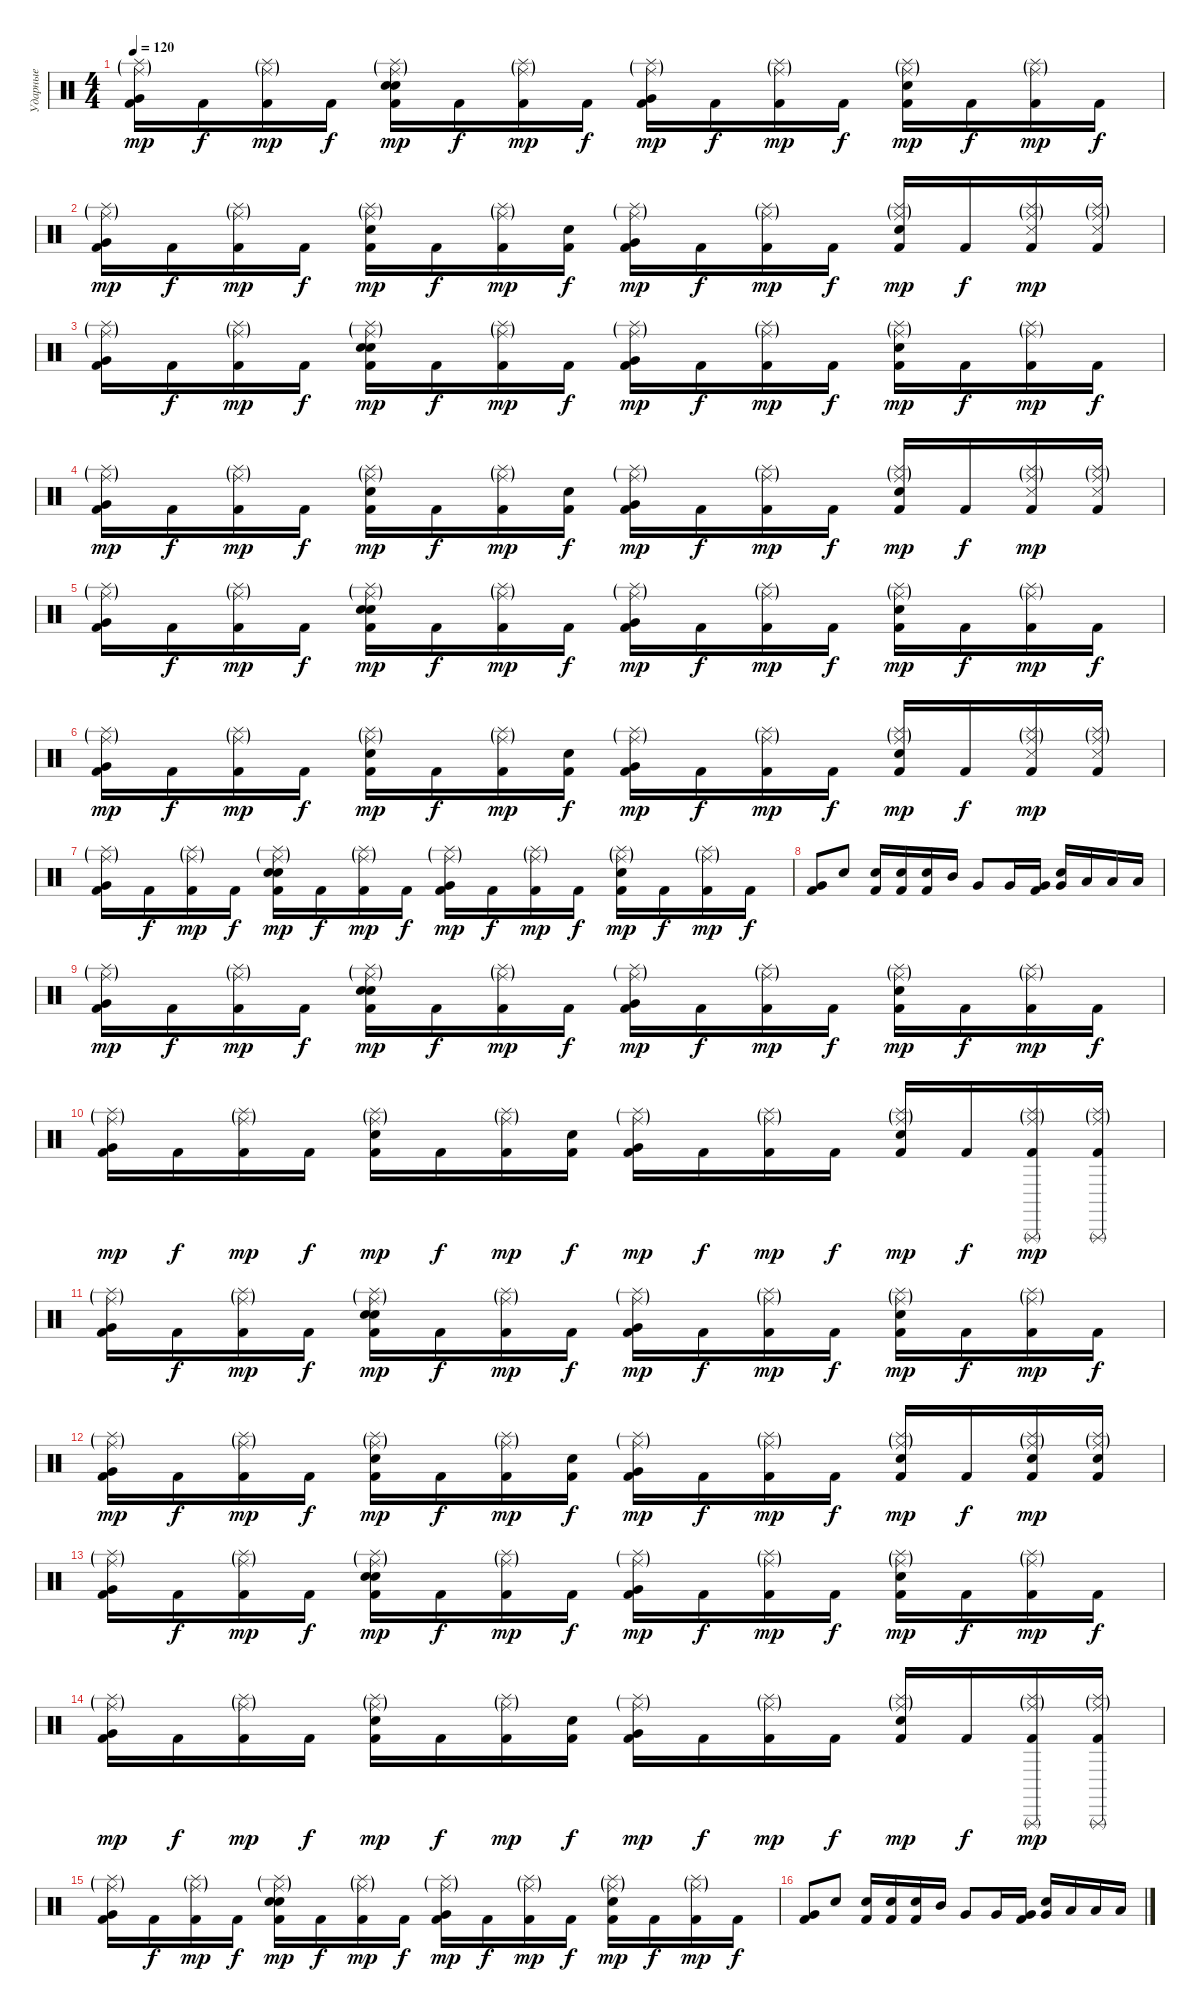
\track ("Ударные" "Ударные") {instrument percussion bank 2}
\staff {score}
\articulation defaults
\ts (4 4)
\tempo 120
\clef neutral
\ks c
("Kick (hit) 2" "Very Low Tom (hit)" "Splash (hit)"{g} "Ride (middle)"{g}).16{dy mp} "Kick (hit) 2".16{dy f} ("Kick (hit) 2" "Splash (hit)"{g} "Ride (middle)"{g}).16{dy mp} "Kick (hit) 2".16{dy f} ("Kick (hit) 2" "Snare (hit) 2" "Snare (hit)" "Splash (hit)"{g} "Ride (middle)"{g}).16{dy mp} "Kick (hit) 2".16{dy f} ("Kick (hit) 2" "Splash (hit)"{g} "Ride (middle)"{g}).16{dy mp} "Kick (hit) 2".16{dy f} ("Kick (hit) 2" "Very Low Tom (hit)" "Splash (hit)"{g} "Ride (middle)"{g}).16{dy mp} "Kick (hit) 2".16{dy f} ("Kick (hit) 2" "Splash (hit)"{g} "Ride (middle)"{g}).16{dy mp} "Kick (hit) 2".16{dy f} ("Kick (hit) 2" "Snare (hit) 2" "Splash (hit)"{g} "Ride (middle)"{g}).16{dy mp} "Kick (hit) 2".16{dy f} ("Kick (hit) 2" "Splash (hit)"{g} "Ride (middle)"{g}).16{dy mp} "Kick (hit) 2".16{dy f} |
("Kick (hit) 2" "Very Low Tom (hit)" "Splash (hit)"{g} "Ride (middle)"{g}).16{dy mp} "Kick (hit) 2".16{dy f} ("Kick (hit) 2" "Splash (hit)"{g} "Ride (middle)"{g}).16{dy mp} "Kick (hit) 2".16{dy f} ("Kick (hit) 2" "Snare (hit) 2" "Splash (hit)"{g} "Ride (middle)"{g}).16{dy mp} "Kick (hit) 2".16{dy f} ("Kick (hit) 2" "Splash (hit)"{g} "Ride (middle)"{g}).16{dy mp} ("Kick (hit) 2" "Snare (hit)").16{dy f} ("Kick (hit) 2" "Very Low Tom (hit)" "Splash (hit)"{g} "Ride (middle)"{g}).16{dy mp} "Kick (hit) 2".16{dy f} ("Kick (hit) 2" "Splash (hit)"{g} "Ride (middle)"{g}).16{dy mp} "Kick (hit) 2".16{dy f} ("Kick (hit) 2" "Snare (hit) 2" "Splash (hit)"{g} "Ride (middle)"{g}).16{dy mp} "Kick (hit) 2".16{dy f} ("Kick (hit) 2" "Splash (hit)"{g} "Ride (middle)"{g} "Snare (side stick) 3").16{dy mp} ("Kick (hit) 2" "Splash (hit)"{g} "Ride (middle)"{g} "Snare (side stick) 3").16 |
("Kick (hit) 2" "Very Low Tom (hit)" "Splash (hit)"{g} "Ride (middle)"{g}).16 "Kick (hit) 2".16{dy f} ("Kick (hit) 2" "Splash (hit)"{g} "Ride (middle)"{g}).16{dy mp} "Kick (hit) 2".16{dy f} ("Kick (hit) 2" "Snare (hit) 2" "Snare (hit)" "Splash (hit)"{g} "Ride (middle)"{g}).16{dy mp} "Kick (hit) 2".16{dy f} ("Kick (hit) 2" "Splash (hit)"{g} "Ride (middle)"{g}).16{dy mp} "Kick (hit) 2".16{dy f} ("Kick (hit) 2" "Very Low Tom (hit)" "Splash (hit)"{g} "Ride (middle)"{g}).16{dy mp} "Kick (hit) 2".16{dy f} ("Kick (hit) 2" "Splash (hit)"{g} "Ride (middle)"{g}).16{dy mp} "Kick (hit) 2".16{dy f} ("Kick (hit) 2" "Snare (hit) 2" "Splash (hit)"{g} "Ride (middle)"{g}).16{dy mp} "Kick (hit) 2".16{dy f} ("Kick (hit) 2" "Splash (hit)"{g} "Ride (middle)"{g}).16{dy mp} "Kick (hit) 2".16{dy f} |
("Kick (hit) 2" "Very Low Tom (hit)" "Splash (hit)"{g} "Ride (middle)"{g}).16{dy mp} "Kick (hit) 2".16{dy f} ("Kick (hit) 2" "Splash (hit)"{g} "Ride (middle)"{g}).16{dy mp} "Kick (hit) 2".16{dy f} ("Kick (hit) 2" "Snare (hit) 2" "Splash (hit)"{g} "Ride (middle)"{g}).16{dy mp} "Kick (hit) 2".16{dy f} ("Kick (hit) 2" "Splash (hit)"{g} "Ride (middle)"{g}).16{dy mp} ("Kick (hit) 2" "Snare (hit)").16{dy f} ("Kick (hit) 2" "Very Low Tom (hit)" "Splash (hit)"{g} "Ride (middle)"{g}).16{dy mp} "Kick (hit) 2".16{dy f} ("Kick (hit) 2" "Splash (hit)"{g} "Ride (middle)"{g}).16{dy mp} "Kick (hit) 2".16{dy f} ("Kick (hit) 2" "Snare (hit) 2" "Splash (hit)"{g} "Ride (middle)"{g}).16{dy mp} "Kick (hit) 2".16{dy f} ("Kick (hit) 2" "Splash (hit)"{g} "Ride (middle)"{g} "Snare (side stick) 3").16{dy mp} ("Kick (hit) 2" "Splash (hit)"{g} "Ride (middle)"{g} "Snare (side stick) 3").16 |
("Kick (hit) 2" "Very Low Tom (hit)" "Splash (hit)"{g} "Ride (middle)"{g}).16 "Kick (hit) 2".16{dy f} ("Kick (hit) 2" "Splash (hit)"{g} "Ride (middle)"{g}).16{dy mp} "Kick (hit) 2".16{dy f} ("Kick (hit) 2" "Snare (hit) 2" "Snare (hit)" "Splash (hit)"{g} "Ride (middle)"{g}).16{dy mp} "Kick (hit) 2".16{dy f} ("Kick (hit) 2" "Splash (hit)"{g} "Ride (middle)"{g}).16{dy mp} "Kick (hit) 2".16{dy f} ("Kick (hit) 2" "Very Low Tom (hit)" "Splash (hit)"{g} "Ride (middle)"{g}).16{dy mp} "Kick (hit) 2".16{dy f} ("Kick (hit) 2" "Splash (hit)"{g} "Ride (middle)"{g}).16{dy mp} "Kick (hit) 2".16{dy f} ("Kick (hit) 2" "Snare (hit) 2" "Splash (hit)"{g} "Ride (middle)"{g}).16{dy mp} "Kick (hit) 2".16{dy f} ("Kick (hit) 2" "Splash (hit)"{g} "Ride (middle)"{g}).16{dy mp} "Kick (hit) 2".16{dy f} |
("Kick (hit) 2" "Very Low Tom (hit)" "Splash (hit)"{g} "Ride (middle)"{g}).16{dy mp} "Kick (hit) 2".16{dy f} ("Kick (hit) 2" "Splash (hit)"{g} "Ride (middle)"{g}).16{dy mp} "Kick (hit) 2".16{dy f} ("Kick (hit) 2" "Snare (hit) 2" "Splash (hit)"{g} "Ride (middle)"{g}).16{dy mp} "Kick (hit) 2".16{dy f} ("Kick (hit) 2" "Splash (hit)"{g} "Ride (middle)"{g}).16{dy mp} ("Kick (hit) 2" "Snare (hit)").16{dy f} ("Kick (hit) 2" "Very Low Tom (hit)" "Splash (hit)"{g} "Ride (middle)"{g}).16{dy mp} "Kick (hit) 2".16{dy f} ("Kick (hit) 2" "Splash (hit)"{g} "Ride (middle)"{g}).16{dy mp} "Kick (hit) 2".16{dy f} ("Kick (hit) 2" "Snare (hit) 2" "Splash (hit)"{g} "Ride (middle)"{g}).16{dy mp} "Kick (hit) 2".16{dy f} ("Kick (hit) 2" "Splash (hit)"{g} "Ride (middle)"{g} "Snare (side stick) 3").16{dy mp} ("Kick (hit) 2" "Splash (hit)"{g} "Ride (middle)"{g} "Snare (side stick) 3").16 |
("Kick (hit) 2" "Very Low Tom (hit)" "Splash (hit)"{g} "Ride (middle)"{g}).16 "Kick (hit) 2".16{dy f} ("Kick (hit) 2" "Splash (hit)"{g} "Ride (middle)"{g}).16{dy mp} "Kick (hit) 2".16{dy f} ("Kick (hit) 2" "Snare (hit) 2" "Snare (hit)" "Splash (hit)"{g} "Ride (middle)"{g}).16{dy mp} "Kick (hit) 2".16{dy f} ("Kick (hit) 2" "Splash (hit)"{g} "Ride (middle)"{g}).16{dy mp} "Kick (hit) 2".16{dy f} ("Kick (hit) 2" "Very Low Tom (hit)" "Splash (hit)"{g} "Ride (middle)"{g}).16{dy mp} "Kick (hit) 2".16{dy f} ("Kick (hit) 2" "Splash (hit)"{g} "Ride (middle)"{g}).16{dy mp} "Kick (hit) 2".16{dy f} ("Kick (hit) 2" "Snare (hit) 2" "Splash (hit)"{g} "Ride (middle)"{g}).16{dy mp} "Kick (hit) 2".16{dy f} ("Kick (hit) 2" "Splash (hit)"{g} "Ride (middle)"{g}).16{dy mp} "Kick (hit) 2".16{dy f} |
("Kick (hit) 2" "Very Low Tom (hit)").8 "Snare (hit) 2".8 ("Kick (hit) 2" "Snare (hit) 2").16 ("Kick (hit) 2" "Snare (hit) 2").16 ("Kick (hit) 2" "Snare (hit) 2").16 "Mid Tom (hit)".16 "Very Low Tom (hit)".8 "Very Low Tom (hit)".16 ("Kick (hit) 2" "Very Low Tom (hit)").16 ("Snare (hit)" "Very Low Tom (hit)").16 "Low Floor Tom (hit)".16 "Low Floor Tom (hit)".16 "Low Floor Tom (hit)".16 |
("Kick (hit) 2" "Very Low Tom (hit)" "Splash (hit)"{g} "Ride (middle)"{g}).16{dy mp} "Kick (hit) 2".16{dy f} ("Kick (hit) 2" "Splash (hit)"{g} "Ride (middle)"{g}).16{dy mp} "Kick (hit) 2".16{dy f} ("Kick (hit) 2" "Snare (hit) 2" "Snare (hit)" "Splash (hit)"{g} "Ride (middle)"{g}).16{dy mp} "Kick (hit) 2".16{dy f} ("Kick (hit) 2" "Splash (hit)"{g} "Ride (middle)"{g}).16{dy mp} "Kick (hit) 2".16{dy f} ("Kick (hit) 2" "Very Low Tom (hit)" "Splash (hit)"{g} "Ride (middle)"{g}).16{dy mp} "Kick (hit) 2".16{dy f} ("Kick (hit) 2" "Splash (hit)"{g} "Ride (middle)"{g}).16{dy mp} "Kick (hit) 2".16{dy f} ("Kick (hit) 2" "Snare (hit) 2" "Splash (hit)"{g} "Ride (middle)"{g}).16{dy mp} "Kick (hit) 2".16{dy f} ("Kick (hit) 2" "Splash (hit)"{g} "Ride (middle)"{g}).16{dy mp} "Kick (hit) 2".16{dy f} |
("Kick (hit) 2" "Very Low Tom (hit)" "Splash (hit)"{g} "Ride (middle)"{g}).16{dy mp} "Kick (hit) 2".16{dy f} ("Kick (hit) 2" "Splash (hit)"{g} "Ride (middle)"{g}).16{dy mp} "Kick (hit) 2".16{dy f} ("Kick (hit) 2" "Snare (hit) 2" "Splash (hit)"{g} "Ride (middle)"{g}).16{dy mp} "Kick (hit) 2".16{dy f} ("Kick (hit) 2" "Splash (hit)"{g} "Ride (middle)"{g}).16{dy mp} ("Kick (hit) 2" "Snare (hit)").16{dy f} ("Kick (hit) 2" "Very Low Tom (hit)" "Splash (hit)"{g} "Ride (middle)"{g}).16{dy mp} "Kick (hit) 2".16{dy f} ("Kick (hit) 2" "Splash (hit)"{g} "Ride (middle)"{g}).16{dy mp} "Kick (hit) 2".16{dy f} ("Kick (hit) 2" "Snare (hit) 2" "Splash (hit)"{g} "Ride (middle)"{g}).16{dy mp} "Kick (hit) 2".16{dy f} ("Kick (hit) 2" "Splash (hit)"{g} "Ride (middle)"{g} "Triangle (rnute)").16{dy mp} ("Kick (hit) 2" "Splash (hit)"{g} "Ride (middle)"{g} "Triangle (rnute)").16 |
("Kick (hit) 2" "Very Low Tom (hit)" "Splash (hit)"{g} "Ride (middle)"{g}).16 "Kick (hit) 2".16{dy f} ("Kick (hit) 2" "Splash (hit)"{g} "Ride (middle)"{g}).16{dy mp} "Kick (hit) 2".16{dy f} ("Kick (hit) 2" "Snare (hit) 2" "Snare (hit)" "Splash (hit)"{g} "Ride (middle)"{g}).16{dy mp} "Kick (hit) 2".16{dy f} ("Kick (hit) 2" "Splash (hit)"{g} "Ride (middle)"{g}).16{dy mp} "Kick (hit) 2".16{dy f} ("Kick (hit) 2" "Very Low Tom (hit)" "Splash (hit)"{g} "Ride (middle)"{g}).16{dy mp} "Kick (hit) 2".16{dy f} ("Kick (hit) 2" "Splash (hit)"{g} "Ride (middle)"{g}).16{dy mp} "Kick (hit) 2".16{dy f} ("Kick (hit) 2" "Snare (hit) 2" "Splash (hit)"{g} "Ride (middle)"{g}).16{dy mp} "Kick (hit) 2".16{dy f} ("Kick (hit) 2" "Splash (hit)"{g} "Ride (middle)"{g}).16{dy mp} "Kick (hit) 2".16{dy f} |
("Kick (hit) 2" "Very Low Tom (hit)" "Splash (hit)"{g} "Ride (middle)"{g}).16{dy mp} "Kick (hit) 2".16{dy f} ("Kick (hit) 2" "Splash (hit)"{g} "Ride (middle)"{g}).16{dy mp} "Kick (hit) 2".16{dy f} ("Kick (hit) 2" "Snare (hit) 2" "Splash (hit)"{g} "Ride (middle)"{g}).16{dy mp} "Kick (hit) 2".16{dy f} ("Kick (hit) 2" "Splash (hit)"{g} "Ride (middle)"{g}).16{dy mp} ("Kick (hit) 2" "Snare (hit)").16{dy f} ("Kick (hit) 2" "Very Low Tom (hit)" "Splash (hit)"{g} "Ride (middle)"{g}).16{dy mp} "Kick (hit) 2".16{dy f} ("Kick (hit) 2" "Splash (hit)"{g} "Ride (middle)"{g}).16{dy mp} "Kick (hit) 2".16{dy f} ("Kick (hit) 2" "Snare (hit) 2" "Splash (hit)"{g} "Ride (middle)"{g}).16{dy mp} "Kick (hit) 2".16{dy f} ("Kick (hit) 2" "Splash (hit)"{g} "Ride (middle)"{g} "Snare (hit)").16{dy mp} ("Kick (hit) 2" "Splash (hit)"{g} "Ride (middle)"{g} "Snare (hit)").16 |
("Kick (hit) 2" "Very Low Tom (hit)" "Splash (hit)"{g} "Ride (middle)"{g}).16 "Kick (hit) 2".16{dy f} ("Kick (hit) 2" "Splash (hit)"{g} "Ride (middle)"{g}).16{dy mp} "Kick (hit) 2".16{dy f} ("Kick (hit) 2" "Snare (hit) 2" "Snare (hit)" "Splash (hit)"{g} "Ride (middle)"{g}).16{dy mp} "Kick (hit) 2".16{dy f} ("Kick (hit) 2" "Splash (hit)"{g} "Ride (middle)"{g}).16{dy mp} "Kick (hit) 2".16{dy f} ("Kick (hit) 2" "Very Low Tom (hit)" "Splash (hit)"{g} "Ride (middle)"{g}).16{dy mp} "Kick (hit) 2".16{dy f} ("Kick (hit) 2" "Splash (hit)"{g} "Ride (middle)"{g}).16{dy mp} "Kick (hit) 2".16{dy f} ("Kick (hit) 2" "Snare (hit) 2" "Splash (hit)"{g} "Ride (middle)"{g}).16{dy mp} "Kick (hit) 2".16{dy f} ("Kick (hit) 2" "Splash (hit)"{g} "Ride (middle)"{g}).16{dy mp} "Kick (hit) 2".16{dy f} |
("Kick (hit) 2" "Very Low Tom (hit)" "Splash (hit)"{g} "Ride (middle)"{g}).16{dy mp} "Kick (hit) 2".16{dy f} ("Kick (hit) 2" "Splash (hit)"{g} "Ride (middle)"{g}).16{dy mp} "Kick (hit) 2".16{dy f} ("Kick (hit) 2" "Snare (hit) 2" "Splash (hit)"{g} "Ride (middle)"{g}).16{dy mp} "Kick (hit) 2".16{dy f} ("Kick (hit) 2" "Splash (hit)"{g} "Ride (middle)"{g}).16{dy mp} ("Kick (hit) 2" "Snare (hit)").16{dy f} ("Kick (hit) 2" "Very Low Tom (hit)" "Splash (hit)"{g} "Ride (middle)"{g}).16{dy mp} "Kick (hit) 2".16{dy f} ("Kick (hit) 2" "Splash (hit)"{g} "Ride (middle)"{g}).16{dy mp} "Kick (hit) 2".16{dy f} ("Kick (hit) 2" "Snare (hit) 2" "Splash (hit)"{g} "Ride (middle)"{g}).16{dy mp} "Kick (hit) 2".16{dy f} ("Kick (hit) 2" "Splash (hit)"{g} "Ride (middle)"{g} "Triangle (rnute)").16{dy mp} ("Kick (hit) 2" "Splash (hit)"{g} "Ride (middle)"{g} "Triangle (rnute)").16 |
("Kick (hit) 2" "Very Low Tom (hit)" "Splash (hit)"{g} "Ride (middle)"{g}).16 "Kick (hit) 2".16{dy f} ("Kick (hit) 2" "Splash (hit)"{g} "Ride (middle)"{g}).16{dy mp} "Kick (hit) 2".16{dy f} ("Kick (hit) 2" "Snare (hit) 2" "Snare (hit)" "Splash (hit)"{g} "Ride (middle)"{g}).16{dy mp} "Kick (hit) 2".16{dy f} ("Kick (hit) 2" "Splash (hit)"{g} "Ride (middle)"{g}).16{dy mp} "Kick (hit) 2".16{dy f} ("Kick (hit) 2" "Very Low Tom (hit)" "Splash (hit)"{g} "Ride (middle)"{g}).16{dy mp} "Kick (hit) 2".16{dy f} ("Kick (hit) 2" "Splash (hit)"{g} "Ride (middle)"{g}).16{dy mp} "Kick (hit) 2".16{dy f} ("Kick (hit) 2" "Snare (hit) 2" "Splash (hit)"{g} "Ride (middle)"{g}).16{dy mp} "Kick (hit) 2".16{dy f} ("Kick (hit) 2" "Splash (hit)"{g} "Ride (middle)"{g}).16{dy mp} "Kick (hit) 2".16{dy f} |
("Kick (hit) 2" "Very Low Tom (hit)").8 "Snare (hit) 2".8 ("Kick (hit) 2" "Snare (hit) 2").16 ("Kick (hit) 2" "Snare (hit) 2").16 ("Kick (hit) 2" "Snare (hit) 2").16 "Mid Tom (hit)".16 "Very Low Tom (hit)".8 "Very Low Tom (hit)".16 ("Kick (hit) 2" "Very Low Tom (hit)").16 ("Snare (hit)" "Very Low Tom (hit)").16 "Low Tom (hit)".16 "Low Tom (hit)".16 "Low Tom (hit)".16
